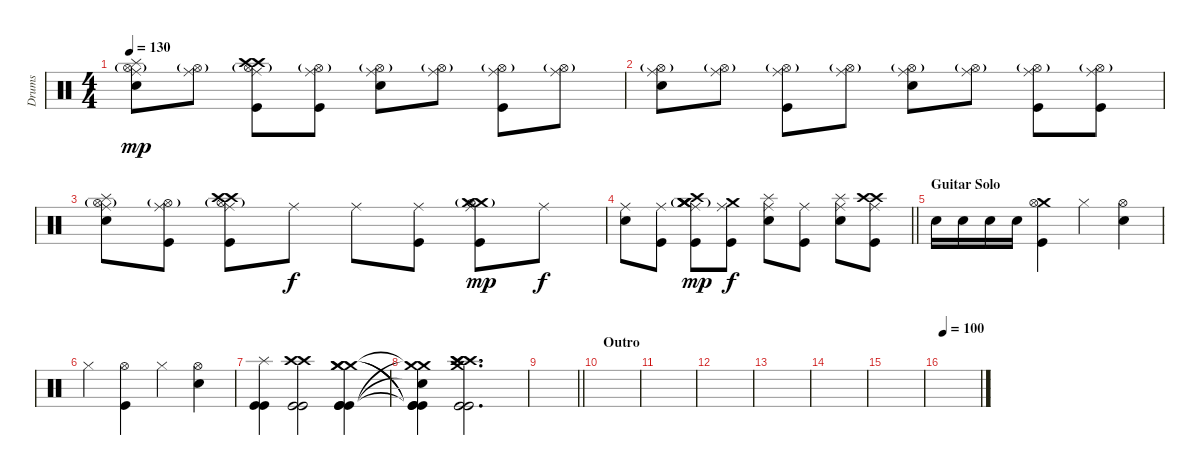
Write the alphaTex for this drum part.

\track ("Drums" "Drums") {instrument percussion}
\staff {score}
\articulation defaults
\ts (4 4)
\tempo 130
\clef neutral
\ks c
("Ride (middle)" "Splash (hit)" "Hi-Hat (open)"{g} "Snare (hit) 2").8{dy mp} ("Ride (middle)" "Hi-Hat (open)"{g}).8 ("Ride (middle)" "Crash high (hit)" "Hi-Hat (open)"{g} "Crash high (hit)" "Kick (hit)").8 ("Ride (middle)" "Hi-Hat (open)"{g} "Kick (hit)").8 ("Ride (middle)" "Hi-Hat (open)"{g} "Snare (hit) 2").8 ("Ride (middle)" "Hi-Hat (open)"{g}).8 ("Ride (middle)" "Hi-Hat (open)"{g} "Kick (hit)").8 ("Ride (middle)" "Hi-Hat (open)"{g}).8 |
("Ride (middle)" "Hi-Hat (open)"{g} "Snare (hit) 2").8 ("Ride (middle)" "Hi-Hat (open)"{g}).8 ("Ride (middle)" "Hi-Hat (open)"{g} "Kick (hit)").8 ("Ride (middle)" "Hi-Hat (open)"{g}).8 ("Ride (middle)" "Hi-Hat (open)"{g} "Snare (hit) 2").8 ("Ride (middle)" "Hi-Hat (open)"{g}).8 ("Ride (middle)" "Hi-Hat (open)"{g} "Kick (hit)").8 ("Ride (middle)" "Hi-Hat (open)"{g} "Kick (hit)").8 |
("Ride (middle)" "Splash (hit)" "Hi-Hat (open)"{g} "Snare (hit) 2").8 ("Ride (middle)" "Hi-Hat (open)"{g} "Kick (hit)").8 ("Ride (middle)" "Crash high (hit)" "Hi-Hat (open)"{g} "Crash high (hit)" "Kick (hit)").8 "Ride (middle)".8{dy f} "Ride (middle)".8 ("Ride (middle)" "Kick (hit)").8 ("Ride (middle)" "Crash medium (hit)" "Hi-Hat (open)"{g} "Crash medium (hit)" "Kick (hit)").8{dy mp} "Ride (middle)".8{dy f} |
\barLineRight lightlight
("Ride (middle)" "Snare (hit) 2").8 ("Ride (middle)" "Kick (hit)").8 ("Ride (middle)" "Crash medium (hit)" "Crash medium (hit)"{g} "Crash medium (hit)" "Crash high (hit)" "Kick (hit)").8{dy mp} ("Ride (middle)" "Crash medium (hit)" "Kick (hit)").8{dy f} ("Ride (middle)" "Splash (hit)" "Snare (hit) 2").8 ("Ride (middle)" "Kick (hit)").8 ("Ride (middle)" "Splash (hit)" "Snare (hit) 2").8 ("Ride (middle)" "Crash high (hit)" "Crash high (hit)" "Kick (hit)").8 |
\section ("" "Guitar Solo")
"Electric Snare (hit)".16 "Electric Snare (hit)".16 "Electric Snare (hit)".16 "Electric Snare (hit)".16 ("Crash medium (hit)" "Hi-Hat (open)" "Kick (hit)").4 "Hi-Hat (closed)".4 ("Hi-Hat (open)" "Snare (hit) 2").4 |
"Hi-Hat (closed)".4 ("Hi-Hat (open)" "Kick (hit)").4 "Hi-Hat (closed)".4 ("Hi-Hat (open)" "Snare (hit) 2").4 |
("Splash (hit)" "Kick (hit)" "Kick (hit)").4 ("Crash high (hit)" "Crash high (hit)" "Kick (hit)" "Kick (hit)").2 ("Kick (hit)" "Crash medium (hit)" "Crash medium (hit)" "Crash medium (hit)" "Kick (hit)" "Kick (hit)").4 |
("Crash medium (hit)"{t} "Crash medium (hit)"{t} "Kick (hit)"{t} "Kick (hit)"{t} "Kick (hit)"{t} "Snare (hit)"{t}).4 ("Crash medium (hit)" "Crash high (hit)" "Crash high (hit)" "Crash high (hit)" "Kick (hit)" "Kick (hit)").2{d} |
\barLineRight lightlight
|
\section ("" "Outro")
|
|
|
|
|
|
\tempo 100
